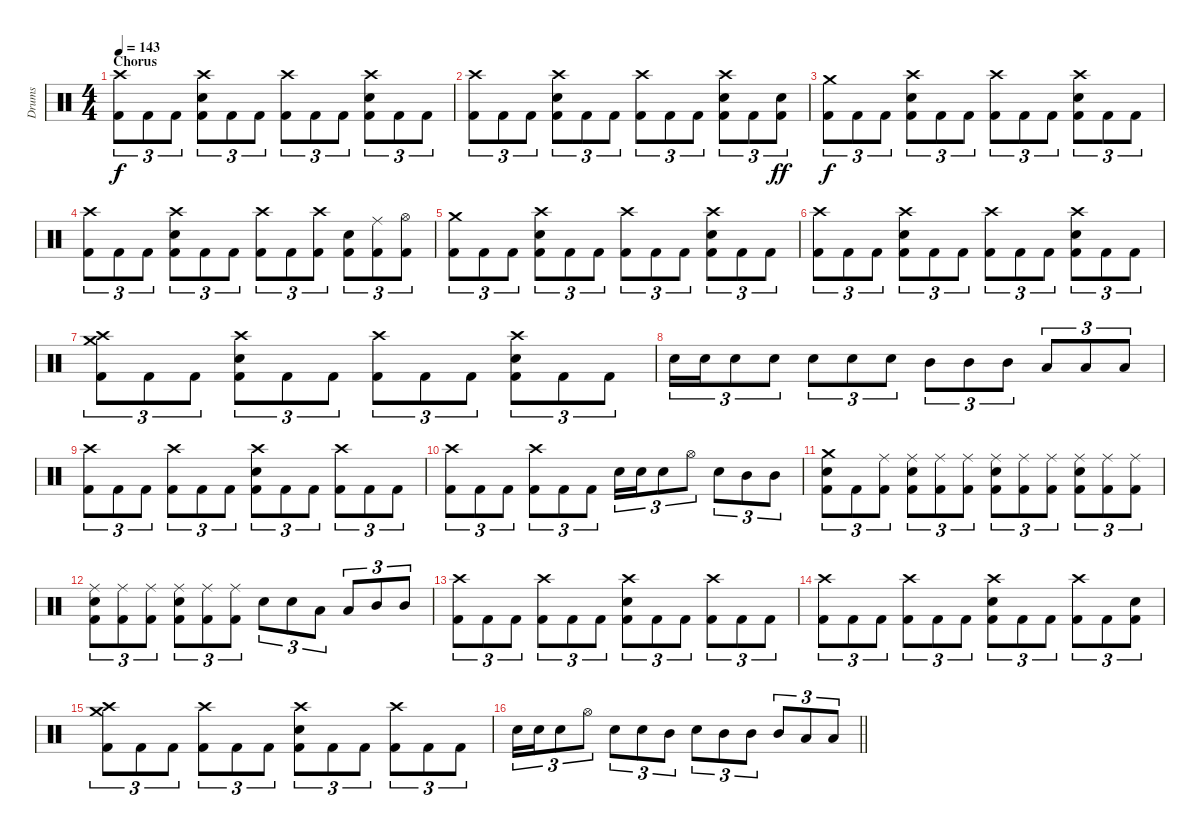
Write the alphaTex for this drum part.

\track ("Drums" "Drums") {instrument percussion}
\staff {score}
\articulation defaults
\ts (4 4)
\section ("" "Chorus")
\tempo 143
\clef neutral
\ks c
("Crash high (hit)" "Kick (hit) 2").8{tu (3 2) dy f} "Kick (hit) 2".8{tu (3 2)} "Kick (hit) 2".8{tu (3 2)} ("Crash high (hit)" "Snare (hit) 2" "Kick (hit) 2").8{tu (3 2)} "Kick (hit) 2".8{tu (3 2)} "Kick (hit) 2".8{tu (3 2)} ("Crash high (hit)" "Kick (hit) 2").8{tu (3 2)} "Kick (hit) 2".8{tu (3 2)} "Kick (hit) 2".8{tu (3 2)} ("Crash high (hit)" "Snare (hit) 2" "Kick (hit) 2").8{tu (3 2)} "Kick (hit) 2".8{tu (3 2)} "Kick (hit) 2".8{tu (3 2)} |
("Crash high (hit)" "Kick (hit) 2").8{tu (3 2)} "Kick (hit) 2".8{tu (3 2)} "Kick (hit) 2".8{tu (3 2)} ("Crash high (hit)" "Snare (hit) 2" "Kick (hit) 2").8{tu (3 2)} "Kick (hit) 2".8{tu (3 2)} "Kick (hit) 2".8{tu (3 2)} ("Crash high (hit)" "Kick (hit) 2").8{tu (3 2)} "Kick (hit) 2".8{tu (3 2)} "Kick (hit) 2".8{tu (3 2)} ("Crash high (hit)" "Snare (hit) 2" "Kick (hit) 2").8{tu (3 2)} "Kick (hit) 2".8{tu (3 2)} ("Snare (hit) 2" "Kick (hit) 2").8{tu (3 2) dy ff} |
("Crash medium (hit)" "Kick (hit) 2").8{tu (3 2) dy f} "Kick (hit) 2".8{tu (3 2)} "Kick (hit) 2".8{tu (3 2)} ("Crash high (hit)" "Snare (hit) 2" "Kick (hit) 2").8{tu (3 2)} "Kick (hit) 2".8{tu (3 2)} "Kick (hit) 2".8{tu (3 2)} ("Crash high (hit)" "Kick (hit) 2").8{tu (3 2)} "Kick (hit) 2".8{tu (3 2)} "Kick (hit) 2".8{tu (3 2)} ("Crash high (hit)" "Snare (hit) 2" "Kick (hit) 2").8{tu (3 2)} "Kick (hit) 2".8{tu (3 2)} "Kick (hit) 2".8{tu (3 2)} |
("Crash high (hit)" "Kick (hit) 2").8{tu (3 2)} "Kick (hit) 2".8{tu (3 2)} "Kick (hit) 2".8{tu (3 2)} ("Crash high (hit)" "Snare (hit) 2" "Kick (hit) 2").8{tu (3 2)} "Kick (hit) 2".8{tu (3 2)} "Kick (hit) 2".8{tu (3 2)} ("Crash high (hit)" "Kick (hit) 2").8{tu (3 2)} "Kick (hit) 2".8{tu (3 2)} ("Crash high (hit)" "Kick (hit) 2").8{tu (3 2)} ("Snare (hit) 2" "Kick (hit) 2").8{tu (3 2)} ("Ride (middle)" "Kick (hit) 2").8{tu (3 2)} ("Hi-Hat (open)" "Kick (hit) 2").8{tu (3 2)} |
("Crash medium (hit)" "Kick (hit) 2").8{tu (3 2)} "Kick (hit) 2".8{tu (3 2)} "Kick (hit) 2".8{tu (3 2)} ("Crash high (hit)" "Snare (hit) 2" "Kick (hit) 2").8{tu (3 2)} "Kick (hit) 2".8{tu (3 2)} "Kick (hit) 2".8{tu (3 2)} ("Crash high (hit)" "Kick (hit) 2").8{tu (3 2)} "Kick (hit) 2".8{tu (3 2)} "Kick (hit) 2".8{tu (3 2)} ("Crash high (hit)" "Snare (hit) 2" "Kick (hit) 2").8{tu (3 2)} "Kick (hit) 2".8{tu (3 2)} "Kick (hit) 2".8{tu (3 2)} |
("Crash high (hit)" "Kick (hit) 2").8{tu (3 2)} "Kick (hit) 2".8{tu (3 2)} "Kick (hit) 2".8{tu (3 2)} ("Crash high (hit)" "Snare (hit) 2" "Kick (hit) 2").8{tu (3 2)} "Kick (hit) 2".8{tu (3 2)} "Kick (hit) 2".8{tu (3 2)} ("Crash high (hit)" "Kick (hit) 2").8{tu (3 2)} "Kick (hit) 2".8{tu (3 2)} "Kick (hit) 2".8{tu (3 2)} ("Crash high (hit)" "Snare (hit) 2" "Kick (hit) 2").8{tu (3 2)} "Kick (hit) 2".8{tu (3 2)} "Kick (hit) 2".8{tu (3 2)} |
("Crash medium (hit)" "Crash high (hit)" "Kick (hit) 2").8{tu (3 2)} "Kick (hit) 2".8{tu (3 2)} "Kick (hit) 2".8{tu (3 2)} ("Crash high (hit)" "Snare (hit) 2" "Kick (hit) 2").8{tu (3 2)} "Kick (hit) 2".8{tu (3 2)} "Kick (hit) 2".8{tu (3 2)} ("Crash high (hit)" "Kick (hit) 2").8{tu (3 2)} "Kick (hit) 2".8{tu (3 2)} "Kick (hit) 2".8{tu (3 2)} ("Crash high (hit)" "Snare (hit) 2" "Kick (hit) 2").8{tu (3 2)} "Kick (hit) 2".8{tu (3 2)} "Kick (hit) 2".8{tu (3 2)} |
"Snare (hit) 2".16{tu (3 2)} "Snare (hit) 2".16{tu (3 2)} "Snare (hit) 2".8{tu (3 2)} "Snare (hit) 2".8{tu (3 2)} "Snare (hit) 2".8{tu (3 2)} "Snare (hit) 2".8{tu (3 2)} "Snare (hit) 2".8{tu (3 2)} "Mid Tom (hit)".8{tu (3 2)} "Mid Tom (hit)".8{tu (3 2)} "Mid Tom (hit)".8{tu (3 2)} "Low Tom (hit)".8{tu (3 2)} "Low Tom (hit)".8{tu (3 2)} "Low Tom (hit)".8{tu (3 2)} |
("Crash high (hit)" "Kick (hit) 2").8{tu (3 2)} "Kick (hit) 2".8{tu (3 2)} "Kick (hit) 2".8{tu (3 2)} ("Crash high (hit)" "Kick (hit) 2").8{tu (3 2)} "Kick (hit) 2".8{tu (3 2)} "Kick (hit) 2".8{tu (3 2)} ("Crash high (hit)" "Snare (hit) 2" "Kick (hit) 2").8{tu (3 2)} "Kick (hit) 2".8{tu (3 2)} "Kick (hit) 2".8{tu (3 2)} ("Crash high (hit)" "Kick (hit) 2").8{tu (3 2)} "Kick (hit) 2".8{tu (3 2)} "Kick (hit) 2".8{tu (3 2)} |
("Crash high (hit)" "Kick (hit) 2").8{tu (3 2)} "Kick (hit) 2".8{tu (3 2)} "Kick (hit) 2".8{tu (3 2)} ("Crash high (hit)" "Kick (hit) 2").8{tu (3 2)} "Kick (hit) 2".8{tu (3 2)} "Kick (hit) 2".8{tu (3 2)} "Snare (hit) 2".16{tu (3 2)} "Snare (hit) 2".16{tu (3 2)} "Snare (hit) 2".8{tu (3 2)} "Hi-Hat (open)".8{tu (3 2)} "Snare (hit) 2".8{tu (3 2)} "Mid Tom (hit)".8{tu (3 2)} "Mid Tom (hit)".8{tu (3 2)} |
("Crash medium (hit)" "Snare (hit) 2" "Kick (hit) 2").8{tu (3 2)} "Kick (hit) 2".8{tu (3 2)} ("Ride (middle)" "Kick (hit) 2").8{tu (3 2)} ("Ride (middle)" "Snare (hit) 2" "Kick (hit) 2").8{tu (3 2)} ("Ride (middle)" "Kick (hit) 2").8{tu (3 2)} ("Ride (middle)" "Kick (hit) 2").8{tu (3 2)} ("Ride (middle)" "Snare (hit) 2" "Kick (hit) 2").8{tu (3 2)} ("Ride (middle)" "Kick (hit) 2").8{tu (3 2)} ("Ride (middle)" "Kick (hit) 2").8{tu (3 2)} ("Ride (middle)" "Snare (hit) 2" "Kick (hit) 2").8{tu (3 2)} ("Ride (middle)" "Kick (hit) 2").8{tu (3 2)} ("Ride (middle)" "Kick (hit) 2").8{tu (3 2)} |
("Ride (middle)" "Snare (hit) 2" "Kick (hit) 2").8{tu (3 2)} ("Ride (middle)" "Kick (hit) 2").8{tu (3 2)} ("Ride (middle)" "Kick (hit) 2").8{tu (3 2)} ("Ride (middle)" "Snare (hit) 2" "Kick (hit) 2").8{tu (3 2)} ("Ride (middle)" "Kick (hit) 2").8{tu (3 2)} ("Ride (middle)" "Kick (hit) 2").8{tu (3 2)} "Snare (hit) 2".8{tu (3 2)} "Snare (hit) 2".8{tu (3 2)} "Low Tom (hit)".8{tu (3 2)} "Low Tom (hit)".8{tu (3 2)} "Mid Tom (hit)".8{tu (3 2)} "Mid Tom (hit)".8{tu (3 2)} |
("Crash high (hit)" "Kick (hit) 2").8{tu (3 2)} "Kick (hit) 2".8{tu (3 2)} "Kick (hit) 2".8{tu (3 2)} ("Crash high (hit)" "Kick (hit) 2").8{tu (3 2)} "Kick (hit) 2".8{tu (3 2)} "Kick (hit) 2".8{tu (3 2)} ("Crash high (hit)" "Snare (hit) 2" "Kick (hit) 2").8{tu (3 2)} "Kick (hit) 2".8{tu (3 2)} "Kick (hit) 2".8{tu (3 2)} ("Crash high (hit)" "Kick (hit) 2").8{tu (3 2)} "Kick (hit) 2".8{tu (3 2)} "Kick (hit) 2".8{tu (3 2)} |
("Crash high (hit)" "Kick (hit) 2").8{tu (3 2)} "Kick (hit) 2".8{tu (3 2)} "Kick (hit) 2".8{tu (3 2)} ("Crash high (hit)" "Kick (hit) 2").8{tu (3 2)} "Kick (hit) 2".8{tu (3 2)} "Kick (hit) 2".8{tu (3 2)} ("Crash high (hit)" "Snare (hit) 2" "Kick (hit) 2").8{tu (3 2)} "Kick (hit) 2".8{tu (3 2)} "Kick (hit) 2".8{tu (3 2)} ("Crash high (hit)" "Kick (hit) 2").8{tu (3 2)} "Kick (hit) 2".8{tu (3 2)} ("Snare (hit) 2" "Kick (hit) 2").8{tu (3 2)} |
("Crash medium (hit)" "Crash high (hit)" "Kick (hit) 2").8{tu (3 2)} "Kick (hit) 2".8{tu (3 2)} "Kick (hit) 2".8{tu (3 2)} ("Crash high (hit)" "Kick (hit) 2").8{tu (3 2)} "Kick (hit) 2".8{tu (3 2)} "Kick (hit) 2".8{tu (3 2)} ("Crash high (hit)" "Snare (hit) 2" "Kick (hit) 2").8{tu (3 2)} "Kick (hit) 2".8{tu (3 2)} "Kick (hit) 2".8{tu (3 2)} ("Crash high (hit)" "Kick (hit) 2").8{tu (3 2)} "Kick (hit) 2".8{tu (3 2)} "Kick (hit) 2".8{tu (3 2)} |
\barLineRight lightlight "Snare (hit) 2".16{tu (3 2)} "Snare (hit) 2".16{tu (3 2)} "Snare (hit) 2".8{tu (3 2)} "Hi-Hat (open)".8{tu (3 2)} "Snare (hit) 2".8{tu (3 2)} "Snare (hit) 2".8{tu (3 2)} "Mid Tom (hit)".8{tu (3 2)} "Snare (hit) 2".8{tu (3 2)} "Mid Tom (hit)".8{tu (3 2)} "Mid Tom (hit)".8{tu (3 2)} "Mid Tom (hit)".8{tu (3 2)} "Low Tom (hit)".8{tu (3 2)} "Low Tom (hit)".8{tu (3 2)}
